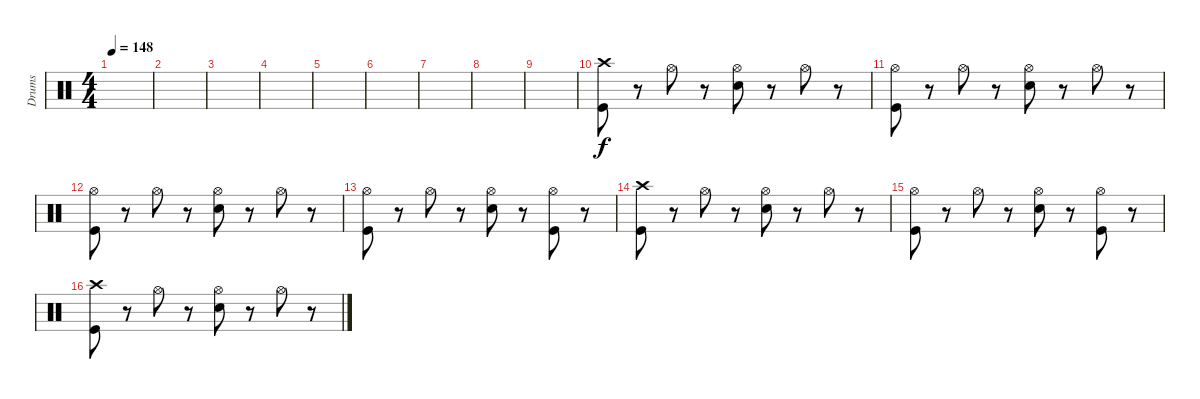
\track ("Drums" "Drums") {instrument percussion}
\staff {score}
\articulation defaults
\ts (4 4)
\tempo 148
\clef neutral
\ks c
|
|
|
|
|
|
|
|
|
("Crash high (hit)" "Kick (hit)").8 r.8 "Hi-Hat (open)".8 r.8 ("Hi-Hat (open)" "Snare (hit) 2").8 r.8 "Hi-Hat (open)".8 r.8 |
("Hi-Hat (open)" "Kick (hit)").8 r.8 "Hi-Hat (open)".8 r.8 ("Hi-Hat (open)" "Snare (hit) 2").8 r.8 "Hi-Hat (open)".8 r.8 |
("Hi-Hat (open)" "Kick (hit)").8 r.8 "Hi-Hat (open)".8 r.8 ("Hi-Hat (open)" "Snare (hit) 2").8 r.8 "Hi-Hat (open)".8 r.8 |
("Hi-Hat (open)" "Kick (hit)").8 r.8 "Hi-Hat (open)".8 r.8 ("Hi-Hat (open)" "Snare (hit) 2").8 r.8 ("Hi-Hat (open)" "Kick (hit)").8 r.8 |
("Crash high (hit)" "Kick (hit)").8 r.8 "Hi-Hat (open)".8 r.8 ("Hi-Hat (open)" "Snare (hit) 2").8 r.8 "Hi-Hat (open)".8 r.8 |
("Hi-Hat (open)" "Kick (hit)").8 r.8 "Hi-Hat (open)".8 r.8 ("Hi-Hat (open)" "Snare (hit) 2").8 r.8 ("Hi-Hat (open)" "Kick (hit)").8 r.8 |
("Crash high (hit)" "Kick (hit)").8 r.8 "Hi-Hat (open)".8 r.8 ("Hi-Hat (open)" "Snare (hit) 2").8 r.8 "Hi-Hat (open)".8 r.8
